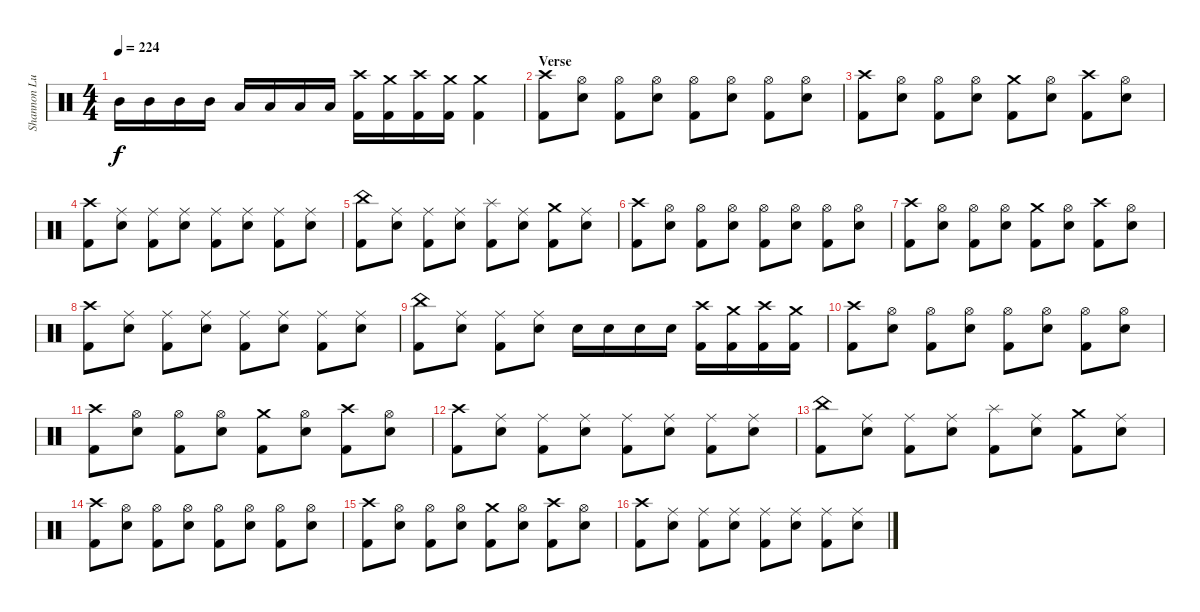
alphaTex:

\track ("Shannon Lucas (Drums)" "Shannon Lu") {instrument percussion}
\staff {score}
\articulation defaults
\ts (4 4)
\tempo 224
\clef neutral
\ks c "Mid Tom (hit)".16{dy f} "Mid Tom (hit)".16 "Mid Tom (hit)".16 "Mid Tom (hit)".16 "Low Tom (hit)".16 "Low Tom (hit)".16 "Low Tom (hit)".16 "Low Tom (hit)".16
("Crash high (hit)" "Kick (hit) 2").16 ("Crash medium (hit)" "Kick (hit) 2").16 ("Crash high (hit)" "Kick (hit) 2").16 ("Crash medium (hit)" "Kick (hit) 2").16 ("Crash medium (hit)" "Kick (hit) 2").4 |
\section ("" "Verse")
("Crash high (hit)" "Kick (hit) 2").8{balance 8} ("Hi-Hat (open)" "Snare (hit) 2").8 ("Hi-Hat (open)" "Kick (hit) 2").8 ("Hi-Hat (open)" "Snare (hit) 2").8 ("Hi-Hat (open)" "Kick (hit) 2").8 ("Hi-Hat (open)" "Snare (hit) 2").8 ("Hi-Hat (open)" "Kick (hit) 2").8 ("Hi-Hat (open)" "Snare (hit) 2").8 |
("Crash high (hit)" "Kick (hit) 2").8 ("Hi-Hat (open)" "Snare (hit) 2").8 ("Hi-Hat (open)" "Kick (hit) 2").8 ("Hi-Hat (open)" "Snare (hit) 2").8 ("Crash medium (hit)" "Kick (hit) 2").8 ("Hi-Hat (open)" "Snare (hit) 2").8 ("Crash high (hit)" "Kick (hit) 2").8 ("Hi-Hat (open)" "Snare (hit) 2").8 |
("Crash high (hit)" "Kick (hit) 2").8 ("Ride (middle)" "Snare (hit) 2").8 ("Ride (middle)" "Kick (hit) 2").8 ("Ride (middle)" "Snare (hit) 2").8 ("Ride (middle)" "Kick (hit) 2").8 ("Ride (middle)" "Snare (hit) 2").8 ("Ride (middle)" "Kick (hit) 2").8 ("Ride (middle)" "Snare (hit) 2").8 |
("China (hit)" "Kick (hit) 2").8 ("Ride (middle)" "Snare (hit) 2").8 ("Ride (middle)" "Kick (hit) 2").8 ("Ride (middle)" "Snare (hit) 2").8 ("Splash (hit)" "Kick (hit) 2").8 ("Ride (middle)" "Snare (hit) 2").8 ("Crash medium (hit)" "Kick (hit) 2").8 ("Ride (middle)" "Snare (hit) 2").8 |
("Crash high (hit)" "Kick (hit) 2").8{balance 8} ("Hi-Hat (open)" "Snare (hit) 2").8 ("Hi-Hat (open)" "Kick (hit) 2").8 ("Hi-Hat (open)" "Snare (hit) 2").8 ("Hi-Hat (open)" "Kick (hit) 2").8 ("Hi-Hat (open)" "Snare (hit) 2").8 ("Hi-Hat (open)" "Kick (hit) 2").8 ("Hi-Hat (open)" "Snare (hit) 2").8 |
("Crash high (hit)" "Kick (hit) 2").8 ("Hi-Hat (open)" "Snare (hit) 2").8 ("Hi-Hat (open)" "Kick (hit) 2").8 ("Hi-Hat (open)" "Snare (hit) 2").8 ("Crash medium (hit)" "Kick (hit) 2").8 ("Hi-Hat (open)" "Snare (hit) 2").8 ("Crash high (hit)" "Kick (hit) 2").8 ("Hi-Hat (open)" "Snare (hit) 2").8 |
("Crash high (hit)" "Kick (hit) 2").8 ("Ride (middle)" "Snare (hit) 2").8 ("Ride (middle)" "Kick (hit) 2").8 ("Ride (middle)" "Snare (hit) 2").8 ("Ride (middle)" "Kick (hit) 2").8 ("Ride (middle)" "Snare (hit) 2").8 ("Ride (middle)" "Kick (hit) 2").8 ("Ride (middle)" "Snare (hit) 2").8 |
("China (hit)" "Kick (hit) 2").8 ("Ride (middle)" "Snare (hit) 2").8 ("Ride (middle)" "Kick (hit) 2").8 ("Ride (middle)" "Snare (hit) 2").8 "Snare (hit) 2".16 "Snare (hit) 2".16 "Snare (hit) 2".16 "Snare (hit) 2".16 ("Crash high (hit)" "Kick (hit) 2").16 ("Crash medium (hit)" "Kick (hit) 2").16 ("Crash high (hit)" "Kick (hit) 2").16 ("Crash medium (hit)" "Kick (hit) 2").16 |
("Crash high (hit)" "Kick (hit) 2").8{balance 8} ("Hi-Hat (open)" "Snare (hit) 2").8 ("Hi-Hat (open)" "Kick (hit) 2").8 ("Hi-Hat (open)" "Snare (hit) 2").8 ("Hi-Hat (open)" "Kick (hit) 2").8 ("Hi-Hat (open)" "Snare (hit) 2").8 ("Hi-Hat (open)" "Kick (hit) 2").8 ("Hi-Hat (open)" "Snare (hit) 2").8 |
("Crash high (hit)" "Kick (hit) 2").8 ("Hi-Hat (open)" "Snare (hit) 2").8 ("Hi-Hat (open)" "Kick (hit) 2").8 ("Hi-Hat (open)" "Snare (hit) 2").8 ("Crash medium (hit)" "Kick (hit) 2").8 ("Hi-Hat (open)" "Snare (hit) 2").8 ("Crash high (hit)" "Kick (hit) 2").8 ("Hi-Hat (open)" "Snare (hit) 2").8 |
("Crash high (hit)" "Kick (hit) 2").8 ("Ride (middle)" "Snare (hit) 2").8 ("Ride (middle)" "Kick (hit) 2").8 ("Ride (middle)" "Snare (hit) 2").8 ("Ride (middle)" "Kick (hit) 2").8 ("Ride (middle)" "Snare (hit) 2").8 ("Ride (middle)" "Kick (hit) 2").8 ("Ride (middle)" "Snare (hit) 2").8 |
("China (hit)" "Kick (hit) 2").8 ("Ride (middle)" "Snare (hit) 2").8 ("Ride (middle)" "Kick (hit) 2").8 ("Ride (middle)" "Snare (hit) 2").8 ("Splash (hit)" "Kick (hit) 2").8 ("Ride (middle)" "Snare (hit) 2").8 ("Crash medium (hit)" "Kick (hit) 2").8 ("Ride (middle)" "Snare (hit) 2").8 |
("Crash high (hit)" "Kick (hit) 2").8{balance 8} ("Hi-Hat (open)" "Snare (hit) 2").8 ("Hi-Hat (open)" "Kick (hit) 2").8 ("Hi-Hat (open)" "Snare (hit) 2").8 ("Hi-Hat (open)" "Kick (hit) 2").8 ("Hi-Hat (open)" "Snare (hit) 2").8 ("Hi-Hat (open)" "Kick (hit) 2").8 ("Hi-Hat (open)" "Snare (hit) 2").8 |
("Crash high (hit)" "Kick (hit) 2").8 ("Hi-Hat (open)" "Snare (hit) 2").8 ("Hi-Hat (open)" "Kick (hit) 2").8 ("Hi-Hat (open)" "Snare (hit) 2").8 ("Crash medium (hit)" "Kick (hit) 2").8 ("Hi-Hat (open)" "Snare (hit) 2").8 ("Crash high (hit)" "Kick (hit) 2").8 ("Hi-Hat (open)" "Snare (hit) 2").8 |
("Crash high (hit)" "Kick (hit) 2").8 ("Ride (middle)" "Snare (hit) 2").8 ("Ride (middle)" "Kick (hit) 2").8 ("Ride (middle)" "Snare (hit) 2").8 ("Ride (middle)" "Kick (hit) 2").8 ("Ride (middle)" "Snare (hit) 2").8 ("Ride (middle)" "Kick (hit) 2").8 ("Ride (middle)" "Snare (hit) 2").8
